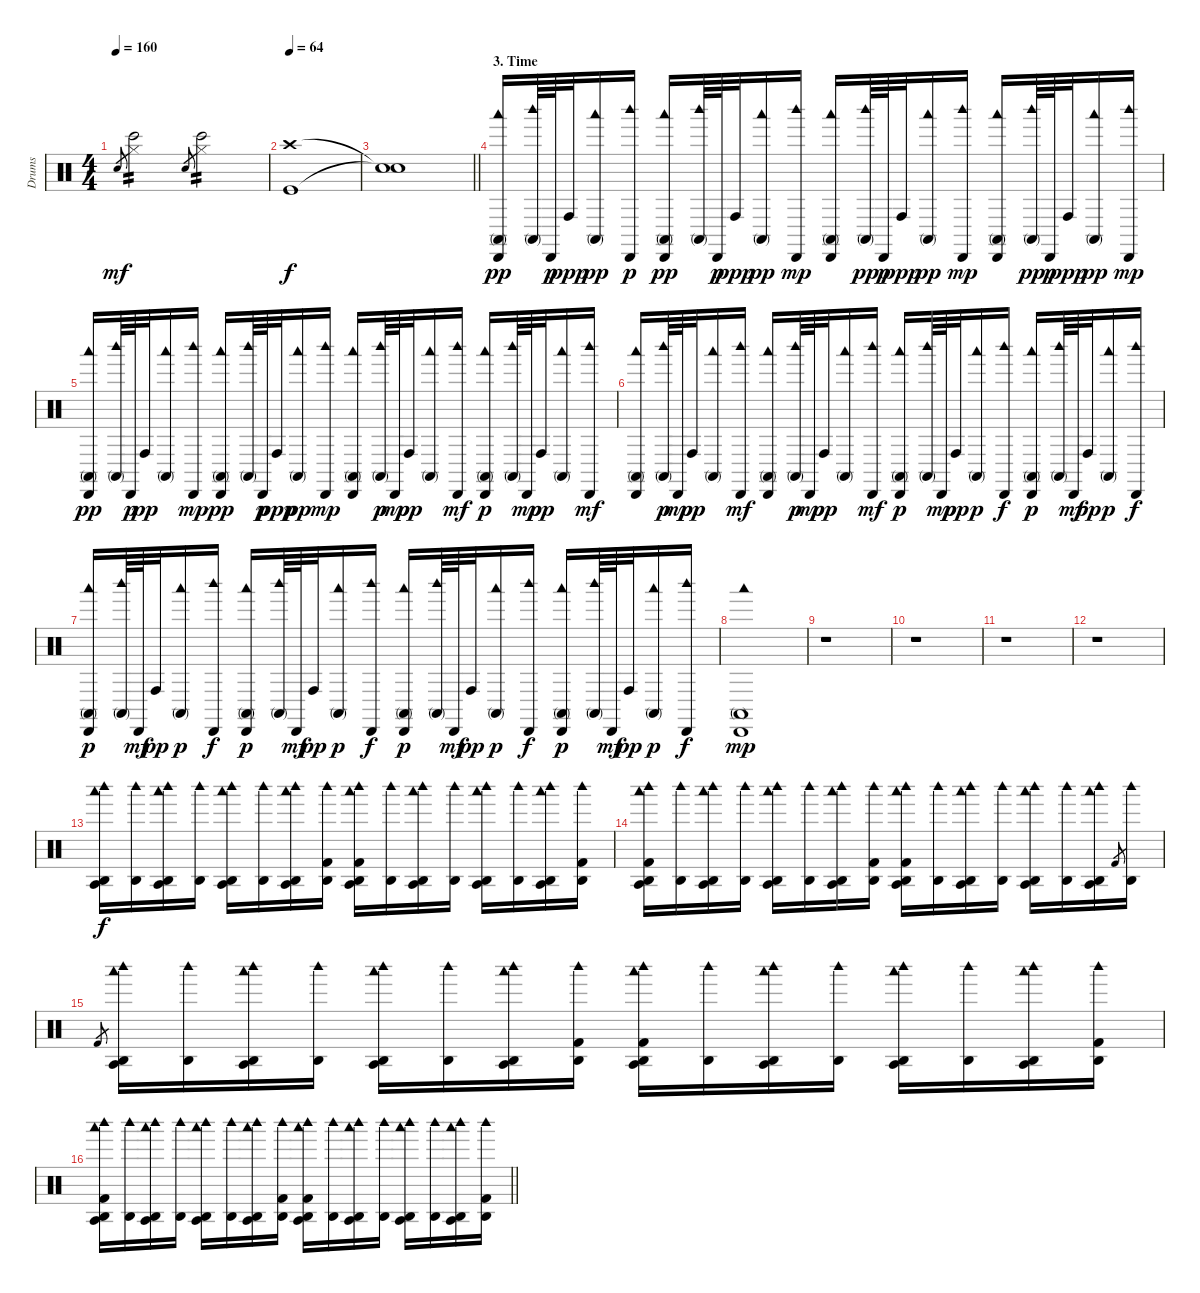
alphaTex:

\track ("Drums" "Drums") {instrument percussion}
\staff {score}
\articulation defaults
\ts (4 4)
\tempo 160
\clef neutral
\ks c "Snare (hit)".8{gr dy mf}
("Hi-Hat (closed)" "Bongo High (hit)").2{tp 2} "Snare (hit)".8{gr} ("Hi-Hat (closed)" "Bongo High (hit)").2{tp 2} |
\tempo 64
("Crash high (hit)" "Kick (hit)").1{dy f} |
\barLineRight lightlight
("Snare (hit)"{t} "Snare (hit)"{t}).1 |
\section ("" "3. Time")
("Woodblock low (hit)" "Cabasa (hit)" "Conga high (mute)").16{dy pp} ("Conga high (mute)" "Woodblock high (hit)").64 "Cabasa (hit)".64{dy p} "Conga high (hit)".32{dy ppp} ("Woodblock low (hit)" "Conga high (mute)").16{dy pp} ("Woodblock high (hit)" "Cabasa (hit)").16{dy p} ("Woodblock low (hit)" "Cabasa (hit)" "Conga high (mute)").16{dy pp} ("Conga high (mute)" "Woodblock high (hit)").64 "Cabasa (hit)".64{dy p} "Conga high (hit)".32{dy ppp} ("Woodblock low (hit)" "Conga high (mute)").16{dy pp} ("Woodblock high (hit)" "Cabasa (hit)").16{dy mp} ("Conga high (mute)" "Cabasa (hit)" "Woodblock low (hit)").16 ("Conga high (mute)" "Woodblock high (hit)").64{dy pp} "Cabasa (hit)".64{dy p} "Conga high (hit)".32{dy ppp} ("Conga high (mute)" "Woodblock low (hit)").16{dy pp} ("Woodblock high (hit)" "Cabasa (hit)").16{dy mp} ("Conga high (mute)" "Woodblock low (hit)" "Cabasa (hit)").16 ("Conga high (mute)" "Woodblock high (hit)").64{dy pp} "Cabasa (hit)".64{dy p} "Conga high (hit)".32{dy ppp} ("Conga high (mute)" "Woodblock low (hit)").16{dy pp} ("Woodblock high (hit)" "Cabasa (hit)").16{dy mp} |
("Woodblock low (hit)" "Cabasa (hit)" "Conga high (mute)").16{dy pp} ("Conga high (mute)" "Woodblock high (hit)").64 "Cabasa (hit)".64{dy p} "Conga high (hit)".32{dy pp} ("Woodblock low (hit)" "Conga high (mute)").16 ("Cabasa (hit)" "Woodblock high (hit)").16{dy mp} ("Woodblock low (hit)" "Cabasa (hit)" "Conga high (mute)").16{dy pp} ("Conga high (mute)" "Woodblock high (hit)").64 "Cabasa (hit)".64{dy p} "Conga high (hit)".32{dy ppp} ("Woodblock low (hit)" "Conga high (mute)").16{dy pp} ("Cabasa (hit)" "Woodblock high (hit)").16{dy mp} ("Woodblock low (hit)" "Conga high (mute)" "Cabasa (hit)").16 ("Conga high (mute)" "Woodblock high (hit)").64{dy p} "Cabasa (hit)".64{dy mp} "Conga high (hit)".32{dy pp} ("Conga high (mute)" "Woodblock low (hit)").16 ("Cabasa (hit)" "Woodblock high (hit)").16{dy mf} ("Cabasa (hit)" "Woodblock low (hit)" "Conga high (mute)").16{dy p} ("Conga high (mute)" "Woodblock high (hit)").64 "Cabasa (hit)".64{dy mp} "Conga high (hit)".32{dy pp} ("Conga high (mute)" "Woodblock low (hit)").16 ("Woodblock high (hit)" "Cabasa (hit)").16{dy mf} |
("Conga high (mute)" "Cabasa (hit)" "Woodblock low (hit)").16 ("Conga high (mute)" "Woodblock high (hit)").64{dy p} "Cabasa (hit)".64{dy mp} "Conga high (hit)".32{dy pp} ("Conga high (mute)" "Woodblock low (hit)").16 ("Cabasa (hit)" "Woodblock high (hit)").16{dy mf} ("Woodblock low (hit)" "Conga high (mute)" "Cabasa (hit)").16 ("Conga high (mute)" "Woodblock high (hit)").64{dy p} "Cabasa (hit)".64{dy mp} "Conga high (hit)".32{dy pp} ("Woodblock low (hit)" "Conga high (mute)").16 ("Woodblock high (hit)" "Cabasa (hit)").16{dy mf} ("Cabasa (hit)" "Conga high (mute)" "Woodblock low (hit)").16{dy p} ("Conga high (mute)" "Woodblock high (hit)").64 "Cabasa (hit)".64{dy mp} "Conga high (hit)".32{dy pp} ("Conga high (mute)" "Woodblock low (hit)").16{dy p} ("Cabasa (hit)" "Woodblock high (hit)").16{dy f} ("Conga high (mute)" "Cabasa (hit)" "Woodblock low (hit)").16{dy p} ("Conga high (mute)" "Woodblock high (hit)").64 "Cabasa (hit)".64{dy mf} "Conga high (hit)".32{dy pp} ("Woodblock low (hit)" "Conga high (mute)").16{dy p} ("Woodblock high (hit)" "Cabasa (hit)").16{dy f} |
("Woodblock low (hit)" "Cabasa (hit)" "Conga high (mute)").16{dy p} ("Conga high (mute)" "Woodblock high (hit)").64 "Cabasa (hit)".64{dy mf} "Conga high (hit)".32{dy pp} ("Woodblock low (hit)" "Conga high (mute)").16{dy p} ("Cabasa (hit)" "Woodblock high (hit)").16{dy f} ("Cabasa (hit)" "Conga high (mute)" "Woodblock low (hit)").16{dy p} ("Conga high (mute)" "Woodblock high (hit)").64 "Cabasa (hit)".64{dy mf} "Conga high (hit)".32{dy pp} ("Woodblock low (hit)" "Conga high (mute)").16{dy p} ("Cabasa (hit)" "Woodblock high (hit)").16{dy f} ("Woodblock low (hit)" "Cabasa (hit)" "Conga high (mute)").16{dy p} ("Conga high (mute)" "Woodblock high (hit)").64 "Cabasa (hit)".64{dy mf} "Conga high (hit)".32{dy pp} ("Woodblock low (hit)" "Conga high (mute)").16{dy p} ("Cabasa (hit)" "Woodblock high (hit)").16{dy f} ("Cabasa (hit)" "Conga high (mute)" "Woodblock low (hit)").16{dy p} ("Conga high (mute)" "Woodblock high (hit)").64 "Cabasa (hit)".64{dy mf} "Conga high (hit)".32{dy pp} ("Woodblock low (hit)" "Conga high (mute)").16{dy p} ("Cabasa (hit)" "Woodblock high (hit)").16{dy f} |
("Woodblock low (hit)" "Conga high (mute)" "Cabasa (hit)").1{dy mp} |
r.1 |
r.1 |
r.1 |
r.1{volume 0} |
("Woodblock high (hit)" "Woodblock low (hit)" "Agogo high (hit)" "Agogo tow (hit)").16{dy f volume 10} ("Woodblock high (hit)" "Agogo high (hit)").16 ("Woodblock high (hit)" "Agogo high (hit)" "Woodblock low (hit)" "Agogo tow (hit)").16 ("Woodblock high (hit)" "Agogo high (hit)").16 ("Woodblock high (hit)" "Woodblock low (hit)" "Agogo high (hit)" "Agogo tow (hit)").16 ("Agogo high (hit)" "Woodblock high (hit)").16 ("Agogo tow (hit)" "Woodblock low (hit)" "Agogo high (hit)" "Woodblock high (hit)").16 ("Woodblock high (hit)" "Agogo high (hit)" "Kick (hit) 2").16 ("Agogo high (hit)" "Woodblock high (hit)" "Agogo tow (hit)" "Woodblock low (hit)" "Kick (hit) 2").16 ("Woodblock high (hit)" "Agogo high (hit)").16 ("Woodblock low (hit)" "Agogo high (hit)" "Agogo tow (hit)" "Woodblock high (hit)").16 ("Woodblock high (hit)" "Agogo high (hit)").16 ("Woodblock low (hit)" "Agogo tow (hit)" "Woodblock high (hit)" "Agogo high (hit)").16 ("Agogo high (hit)" "Woodblock high (hit)").16 ("Woodblock high (hit)" "Agogo tow (hit)" "Agogo high (hit)" "Woodblock low (hit)").16 ("Kick (hit) 2" "Woodblock high (hit)" "Agogo high (hit)").16 |
("Woodblock low (hit)" "Kick (hit) 2" "Woodblock high (hit)" "Agogo tow (hit)" "Agogo high (hit)").16 ("Agogo high (hit)" "Woodblock high (hit)").16 ("Woodblock high (hit)" "Woodblock low (hit)" "Agogo tow (hit)" "Agogo high (hit)").16 ("Agogo high (hit)" "Woodblock high (hit)").16 ("Agogo tow (hit)" "Woodblock high (hit)" "Woodblock low (hit)" "Agogo high (hit)").16 ("Woodblock high (hit)" "Agogo high (hit)").16 ("Agogo high (hit)" "Woodblock low (hit)" "Agogo tow (hit)" "Woodblock high (hit)").16 ("Agogo high (hit)" "Woodblock high (hit)" "Kick (hit) 2").16 ("Kick (hit) 2" "Woodblock high (hit)" "Woodblock low (hit)" "Agogo high (hit)" "Agogo tow (hit)").16 ("Agogo high (hit)" "Woodblock high (hit)").16 ("Woodblock high (hit)" "Woodblock low (hit)" "Agogo high (hit)" "Agogo tow (hit)").16 ("Woodblock high (hit)" "Agogo high (hit)").16 ("Woodblock high (hit)" "Agogo tow (hit)" "Woodblock low (hit)" "Agogo high (hit)").16 ("Woodblock high (hit)" "Agogo high (hit)").16 ("Woodblock high (hit)" "Agogo tow (hit)" "Agogo high (hit)" "Woodblock low (hit)").16 "Kick (hit) 2".8{gr} ("Agogo high (hit)" "Woodblock high (hit)").16 |
"Kick (hit) 2".8{gr} ("Agogo tow (hit)" "Woodblock low (hit)" "Woodblock high (hit)" "Agogo high (hit)").16 ("Woodblock high (hit)" "Agogo high (hit)").16 ("Woodblock high (hit)" "Agogo tow (hit)" "Agogo high (hit)" "Woodblock low (hit)").16 ("Woodblock high (hit)" "Agogo high (hit)").16 ("Agogo high (hit)" "Woodblock high (hit)" "Agogo tow (hit)" "Woodblock low (hit)").16 ("Agogo high (hit)" "Woodblock high (hit)").16 ("Agogo high (hit)" "Woodblock low (hit)" "Woodblock high (hit)" "Agogo tow (hit)").16 ("Woodblock high (hit)" "Kick (hit) 2" "Agogo high (hit)").16 ("Woodblock high (hit)" "Kick (hit) 2" "Agogo high (hit)" "Woodblock low (hit)" "Agogo tow (hit)").16 ("Woodblock high (hit)" "Agogo high (hit)").16 ("Agogo high (hit)" "Woodblock high (hit)" "Woodblock low (hit)" "Agogo tow (hit)").16 ("Agogo high (hit)" "Woodblock high (hit)").16 ("Agogo high (hit)" "Agogo tow (hit)" "Woodblock low (hit)" "Woodblock high (hit)").16 ("Woodblock high (hit)" "Agogo high (hit)").16 ("Woodblock low (hit)" "Agogo high (hit)" "Agogo tow (hit)" "Woodblock high (hit)").16 ("Agogo high (hit)" "Woodblock high (hit)" "Kick (hit) 2").16 |
\barLineRight lightlight
("Woodblock low (hit)" "Agogo tow (hit)" "Kick (hit) 2" "Agogo high (hit)" "Woodblock high (hit)").16 ("Woodblock high (hit)" "Agogo high (hit)").16 ("Woodblock low (hit)" "Agogo tow (hit)" "Woodblock high (hit)" "Agogo high (hit)").16 ("Agogo high (hit)" "Woodblock high (hit)").16 ("Agogo tow (hit)" "Agogo high (hit)" "Woodblock low (hit)" "Woodblock high (hit)").16 ("Agogo high (hit)" "Woodblock high (hit)").16 ("Agogo tow (hit)" "Woodblock high (hit)" "Agogo high (hit)" "Woodblock low (hit)").16 ("Woodblock high (hit)" "Agogo high (hit)" "Kick (hit) 2").16 ("Kick (hit) 2" "Agogo tow (hit)" "Woodblock high (hit)" "Woodblock low (hit)" "Agogo high (hit)").16 ("Woodblock high (hit)" "Agogo high (hit)").16 ("Woodblock low (hit)" "Agogo tow (hit)" "Agogo high (hit)" "Woodblock high (hit)").16 ("Agogo high (hit)" "Woodblock high (hit)").16 ("Woodblock low (hit)" "Woodblock high (hit)" "Agogo high (hit)" "Agogo tow (hit)").16 ("Agogo high (hit)" "Woodblock high (hit)").16 ("Woodblock high (hit)" "Agogo tow (hit)" "Woodblock low (hit)" "Agogo high (hit)").16 ("Kick (hit) 2" "Woodblock high (hit)" "Agogo high (hit)").16
